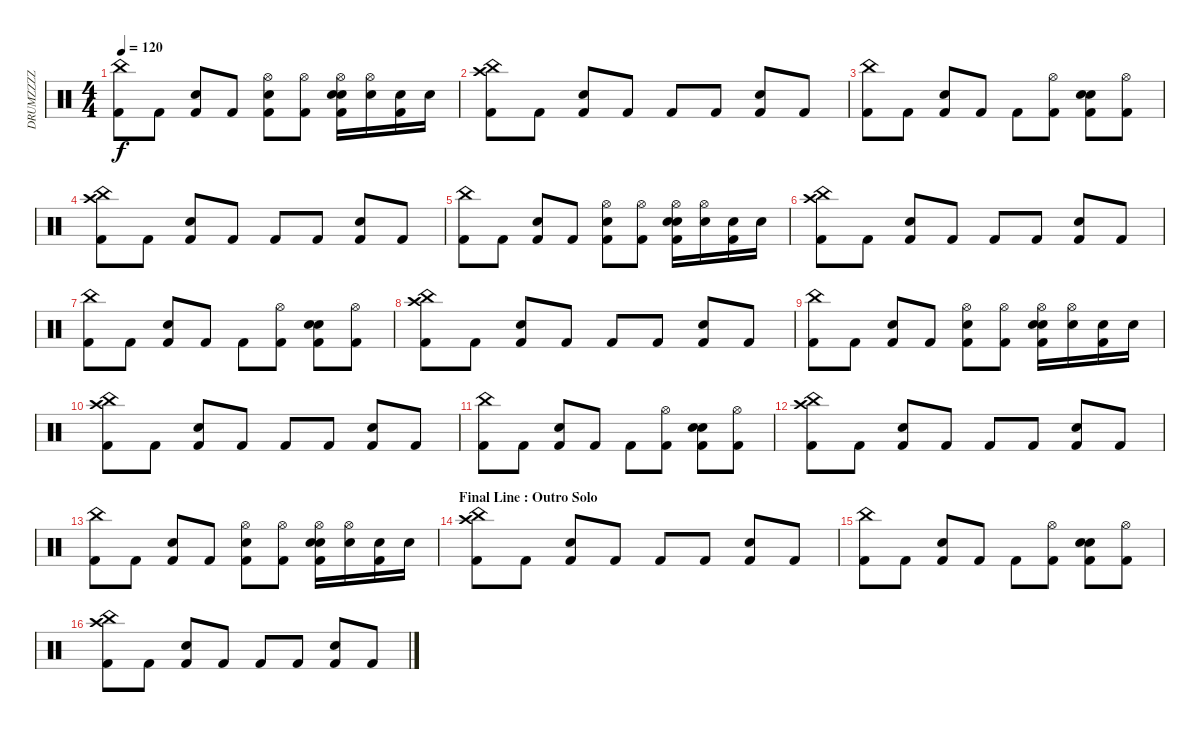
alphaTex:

\track ("DRUMZZZZ" "DRUMZZZZ") {instrument percussion}
\staff {score}
\articulation defaults
\ts (4 4)
\tempo 120
\clef neutral
\ks c
("China (hit)" "Kick (hit) 2").8{dy f} "Kick (hit) 2".8 ("Kick (hit) 2" "Snare (hit) 2").8 "Kick (hit) 2".8 ("Hi-Hat (open)" "Kick (hit) 2" "Electric Snare (hit)").8 ("Hi-Hat (open)" "Kick (hit) 2").8 ("Hi-Hat (open)" "Kick (hit) 2" "Electric Snare (hit)" "Snare (hit) 2").16 ("Hi-Hat (open)" "Electric Snare (hit)").16 ("Kick (hit) 2" "Electric Snare (hit)").16 "Electric Snare (hit)".16 |
("Crash high (hit)" "China (hit)" "Kick (hit) 2").8 "Kick (hit) 2".8 ("Kick (hit) 2" "Snare (hit) 2").8 "Kick (hit) 2".8 "Kick (hit) 2".8 "Kick (hit) 2".8 ("Kick (hit) 2" "Snare (hit) 2").8 "Kick (hit) 2".8 |
("China (hit)" "Kick (hit) 2").8 "Kick (hit) 2".8 ("Kick (hit) 2" "Snare (hit) 2").8 "Kick (hit) 2".8 "Kick (hit) 2".8 ("Hi-Hat (open)" "Kick (hit) 2").8 ("Kick (hit) 2" "Electric Snare (hit)" "Snare (hit) 2").8 ("Hi-Hat (open)" "Kick (hit) 2").8 |
("Crash high (hit)" "China (hit)" "Kick (hit) 2").8 "Kick (hit) 2".8 ("Kick (hit) 2" "Snare (hit) 2").8 "Kick (hit) 2".8 "Kick (hit) 2".8 "Kick (hit) 2".8 ("Kick (hit) 2" "Snare (hit) 2").8 "Kick (hit) 2".8 |
("China (hit)" "Kick (hit) 2").8 "Kick (hit) 2".8 ("Kick (hit) 2" "Snare (hit) 2").8 "Kick (hit) 2".8 ("Hi-Hat (open)" "Kick (hit) 2" "Electric Snare (hit)").8 ("Hi-Hat (open)" "Kick (hit) 2").8 ("Hi-Hat (open)" "Kick (hit) 2" "Electric Snare (hit)" "Snare (hit) 2").16 ("Hi-Hat (open)" "Electric Snare (hit)").16 ("Kick (hit) 2" "Electric Snare (hit)").16 "Electric Snare (hit)".16 |
("Crash high (hit)" "China (hit)" "Kick (hit) 2").8 "Kick (hit) 2".8 ("Kick (hit) 2" "Snare (hit) 2").8 "Kick (hit) 2".8 "Kick (hit) 2".8 "Kick (hit) 2".8 ("Kick (hit) 2" "Snare (hit) 2").8 "Kick (hit) 2".8 |
("China (hit)" "Kick (hit) 2").8 "Kick (hit) 2".8 ("Kick (hit) 2" "Snare (hit) 2").8 "Kick (hit) 2".8 "Kick (hit) 2".8 ("Hi-Hat (open)" "Kick (hit) 2").8 ("Kick (hit) 2" "Electric Snare (hit)" "Snare (hit) 2").8 ("Hi-Hat (open)" "Kick (hit) 2").8 |
("Crash high (hit)" "China (hit)" "Kick (hit) 2").8 "Kick (hit) 2".8 ("Kick (hit) 2" "Snare (hit) 2").8 "Kick (hit) 2".8 "Kick (hit) 2".8 "Kick (hit) 2".8 ("Kick (hit) 2" "Snare (hit) 2").8 "Kick (hit) 2".8 |
("China (hit)" "Kick (hit) 2").8 "Kick (hit) 2".8 ("Kick (hit) 2" "Snare (hit) 2").8 "Kick (hit) 2".8 ("Hi-Hat (open)" "Kick (hit) 2" "Electric Snare (hit)").8 ("Hi-Hat (open)" "Kick (hit) 2").8 ("Hi-Hat (open)" "Kick (hit) 2" "Electric Snare (hit)" "Snare (hit) 2").16 ("Hi-Hat (open)" "Electric Snare (hit)").16 ("Kick (hit) 2" "Electric Snare (hit)").16 "Electric Snare (hit)".16 |
("Crash high (hit)" "China (hit)" "Kick (hit) 2").8 "Kick (hit) 2".8 ("Kick (hit) 2" "Snare (hit) 2").8 "Kick (hit) 2".8 "Kick (hit) 2".8 "Kick (hit) 2".8 ("Kick (hit) 2" "Snare (hit) 2").8 "Kick (hit) 2".8 |
("China (hit)" "Kick (hit) 2").8 "Kick (hit) 2".8 ("Kick (hit) 2" "Snare (hit) 2").8 "Kick (hit) 2".8 "Kick (hit) 2".8 ("Hi-Hat (open)" "Kick (hit) 2").8 ("Kick (hit) 2" "Electric Snare (hit)" "Snare (hit) 2").8 ("Hi-Hat (open)" "Kick (hit) 2").8 |
("Crash high (hit)" "China (hit)" "Kick (hit) 2").8 "Kick (hit) 2".8 ("Kick (hit) 2" "Snare (hit) 2").8 "Kick (hit) 2".8 "Kick (hit) 2".8 "Kick (hit) 2".8 ("Kick (hit) 2" "Snare (hit) 2").8 "Kick (hit) 2".8 |
("China (hit)" "Kick (hit) 2").8 "Kick (hit) 2".8 ("Kick (hit) 2" "Snare (hit) 2").8 "Kick (hit) 2".8 ("Hi-Hat (open)" "Kick (hit) 2" "Electric Snare (hit)").8 ("Hi-Hat (open)" "Kick (hit) 2").8 ("Hi-Hat (open)" "Kick (hit) 2" "Electric Snare (hit)" "Snare (hit) 2").16 ("Hi-Hat (open)" "Electric Snare (hit)").16 ("Kick (hit) 2" "Electric Snare (hit)").16 "Electric Snare (hit)".16 |
\section ("" "Final Line : Outro Solo")
("Crash high (hit)" "China (hit)" "Kick (hit) 2").8 "Kick (hit) 2".8 ("Kick (hit) 2" "Snare (hit) 2").8 "Kick (hit) 2".8 "Kick (hit) 2".8 "Kick (hit) 2".8 ("Kick (hit) 2" "Snare (hit) 2").8 "Kick (hit) 2".8 |
("China (hit)" "Kick (hit) 2").8 "Kick (hit) 2".8 ("Kick (hit) 2" "Snare (hit) 2").8 "Kick (hit) 2".8 "Kick (hit) 2".8 ("Hi-Hat (open)" "Kick (hit) 2").8 ("Kick (hit) 2" "Electric Snare (hit)" "Snare (hit) 2").8 ("Hi-Hat (open)" "Kick (hit) 2").8 |
("Crash high (hit)" "China (hit)" "Kick (hit) 2").8 "Kick (hit) 2".8 ("Kick (hit) 2" "Snare (hit) 2").8 "Kick (hit) 2".8 "Kick (hit) 2".8 "Kick (hit) 2".8 ("Kick (hit) 2" "Snare (hit) 2").8 "Kick (hit) 2".8
